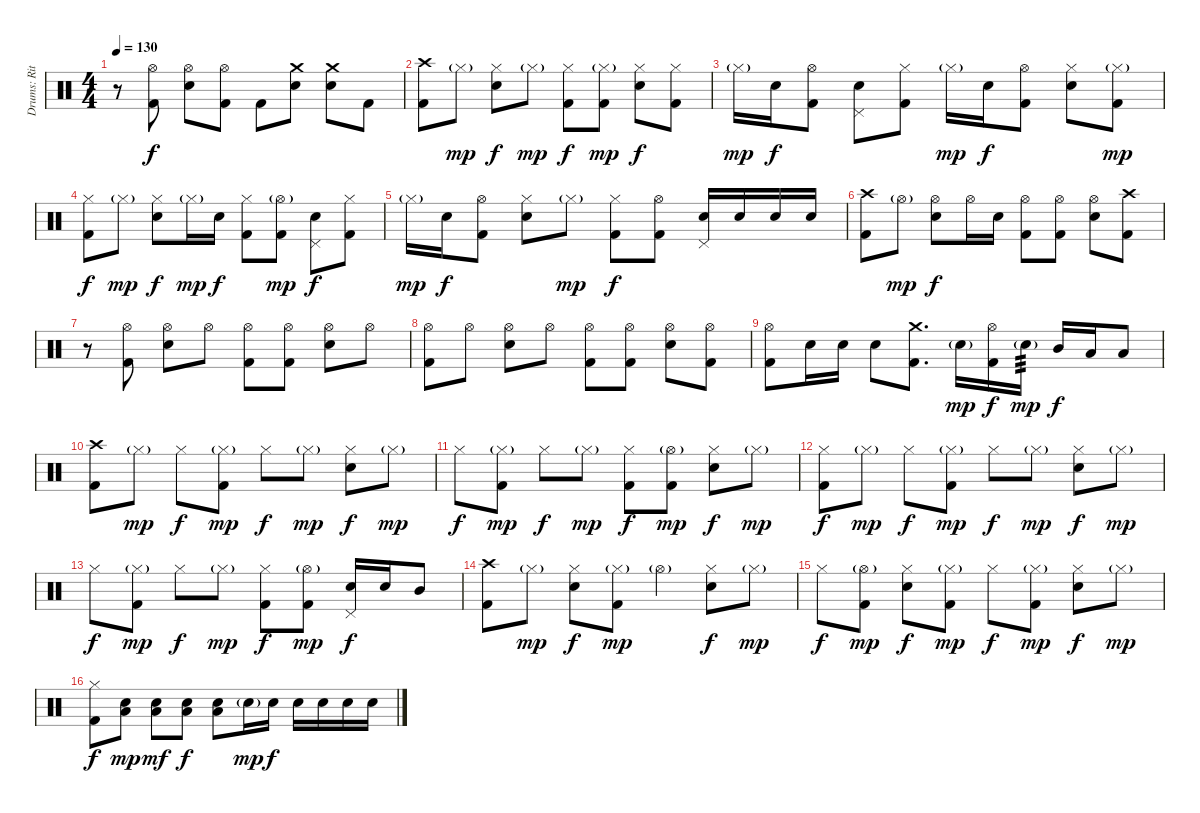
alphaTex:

\track ("Drums: Ritsu Tainaka" "Drums: Rit") {instrument percussion}
\staff {score}
\articulation defaults
\ts (4 4)
\tempo 130
\clef neutral
\ks c
r.8{dy f} ("Hi-Hat (open)" "Kick (hit) 2").8 ("Hi-Hat (open)" "Electric Snare (hit)").8 ("Hi-Hat (open)" "Kick (hit) 2").8 "Kick (hit) 2".8 ("Crash medium (hit)" "Electric Snare (hit)").8 ("Crash medium (hit)" "Electric Snare (hit)").8 "Kick (hit) 2".8 |
("Crash high (hit)" "Kick (hit) 2").8 "Hi-Hat (closed)"{g}.8{dy mp} ("Hi-Hat (closed)" "Electric Snare (hit)").8{dy f} "Hi-Hat (closed)"{g}.8{dy mp} ("Hi-Hat (closed)" "Kick (hit) 2").8{dy f} ("Hi-Hat (closed)"{g} "Kick (hit) 2").8{dy mp} ("Hi-Hat (closed)" "Electric Snare (hit)").8{dy f} ("Hi-Hat (closed)" "Kick (hit) 2").8 |
"Hi-Hat (closed)"{g}.16{dy mp} "Electric Snare (hit)".16{dy f} ("Hi-Hat (open)" "Kick (hit) 2").8 ("Pedal Hi-Hat (hit)" "Electric Snare (hit)").8 ("Hi-Hat (closed)" "Kick (hit) 2").8 "Hi-Hat (closed)"{g}.16{dy mp} "Electric Snare (hit)".16{dy f} ("Hi-Hat (open)" "Kick (hit) 2").8 ("Hi-Hat (closed)" "Electric Snare (hit)").8 ("Hi-Hat (closed)"{g} "Kick (hit) 2").8{dy mp} |
("Hi-Hat (closed)" "Kick (hit) 2").8{dy f} "Hi-Hat (closed)"{g}.8{dy mp} ("Hi-Hat (closed)" "Electric Snare (hit)").8{dy f} "Hi-Hat (closed)"{g}.16{dy mp} "Electric Snare (hit)".16{dy f} ("Hi-Hat (closed)" "Kick (hit) 2").8 ("Hi-Hat (open)"{g} "Kick (hit) 2").8{dy mp} ("Pedal Hi-Hat (hit)" "Electric Snare (hit)").8{dy f} ("Hi-Hat (closed)" "Kick (hit) 2").8 |
"Hi-Hat (closed)"{g}.16{dy mp} "Electric Snare (hit)".16{dy f} ("Hi-Hat (open)" "Kick (hit) 2").8 ("Hi-Hat (closed)" "Electric Snare (hit)").8 "Hi-Hat (closed)"{g}.8{dy mp} ("Hi-Hat (closed)" "Kick (hit) 2").8{dy f} ("Hi-Hat (open)" "Kick (hit) 2").8 ("Pedal Hi-Hat (hit)" "Electric Snare (hit)").16 "Electric Snare (hit)".16 "Electric Snare (hit)".16 "Electric Snare (hit)".16 |
("Crash high (hit)" "Kick (hit) 2").8 "Hi-Hat (open)"{g}.8{dy mp} ("Hi-Hat (open)" "Electric Snare (hit)").8{dy f} "Hi-Hat (open)".16 "Electric Snare (hit)".16 ("Hi-Hat (open)" "Kick (hit) 2").8 ("Hi-Hat (open)" "Kick (hit) 2").8 ("Hi-Hat (open)" "Electric Snare (hit)").8 ("Crash high (hit)" "Kick (hit) 2").8 |
r.8 ("Hi-Hat (open)" "Kick (hit) 2").8 ("Hi-Hat (open)" "Electric Snare (hit)").8 "Hi-Hat (open)".8 ("Hi-Hat (open)" "Kick (hit) 2").8 ("Hi-Hat (open)" "Kick (hit) 2").8 ("Hi-Hat (open)" "Electric Snare (hit)").8 "Hi-Hat (open)".8 |
("Hi-Hat (open)" "Kick (hit) 2").8 "Hi-Hat (open)".8 ("Hi-Hat (open)" "Electric Snare (hit)").8 "Hi-Hat (open)".8 ("Hi-Hat (open)" "Kick (hit) 2").8 ("Hi-Hat (open)" "Kick (hit) 2").8 ("Hi-Hat (open)" "Electric Snare (hit)").8 ("Hi-Hat (open)" "Kick (hit) 2").8 |
("Hi-Hat (open)" "Kick (hit) 2").8 "Electric Snare (hit)".16 "Electric Snare (hit)".16 "Electric Snare (hit)".8 ("Crash medium (hit)" "Kick (hit) 2").8{d} "Electric Snare (hit)"{g}.16{dy mp} ("Hi-Hat (open)" "Kick (hit) 2").16{dy f} "Electric Snare (hit)"{g}.16{tp 3 dy mp} "Mid Tom (hit)".16{dy f} "Low Tom (hit)".16 "Low Tom (hit)".8 |
("Crash high (hit)" "Kick (hit) 2").8 "Hi-Hat (closed)"{g}.8{dy mp} "Hi-Hat (closed)".8{dy f} ("Hi-Hat (closed)"{g} "Kick (hit) 2").8{dy mp} "Hi-Hat (closed)".8{dy f} "Hi-Hat (closed)"{g}.8{dy mp} ("Hi-Hat (closed)" "Electric Snare (hit)").8{dy f} "Hi-Hat (closed)"{g}.8{dy mp} |
"Hi-Hat (closed)".8{dy f} ("Hi-Hat (closed)"{g} "Kick (hit) 2").8{dy mp} "Hi-Hat (closed)".8{dy f} "Hi-Hat (closed)"{g}.8{dy mp} ("Hi-Hat (closed)" "Kick (hit) 2").8{dy f} ("Hi-Hat (open)"{g} "Kick (hit) 2").8{dy mp} ("Hi-Hat (closed)" "Electric Snare (hit)").8{dy f} "Hi-Hat (closed)"{g}.8{dy mp} |
("Hi-Hat (closed)" "Kick (hit) 2").8{dy f} "Hi-Hat (closed)"{g}.8{dy mp} "Hi-Hat (closed)".8{dy f} ("Hi-Hat (closed)"{g} "Kick (hit) 2").8{dy mp} "Hi-Hat (closed)".8{dy f} "Hi-Hat (closed)"{g}.8{dy mp} ("Hi-Hat (closed)" "Electric Snare (hit)").8{dy f} "Hi-Hat (closed)"{g}.8{dy mp} |
"Hi-Hat (closed)".8{dy f} ("Hi-Hat (closed)"{g} "Kick (hit) 2").8{dy mp} "Hi-Hat (closed)".8{dy f} "Hi-Hat (closed)"{g}.8{dy mp} ("Hi-Hat (closed)" "Kick (hit) 2").8{dy f} ("Hi-Hat (open)"{g} "Kick (hit) 2").8{dy mp} ("Pedal Hi-Hat (hit)" "Electric Snare (hit)").16{dy f} "Electric Snare (hit)".16 "Mid Tom (hit)".8 |
("Crash high (hit)" "Kick (hit) 2").8 "Hi-Hat (closed)"{g}.8{dy mp} ("Hi-Hat (closed)" "Electric Snare (hit)").8{dy f} ("Hi-Hat (closed)"{g} "Kick (hit) 2").8{dy mp} "Hi-Hat (open)"{g}.4 ("Hi-Hat (closed)" "Electric Snare (hit)").8{dy f} "Hi-Hat (closed)"{g}.8{dy mp} |
"Hi-Hat (closed)".8{dy f} ("Hi-Hat (open)"{g} "Kick (hit) 2").8{dy mp} ("Hi-Hat (closed)" "Electric Snare (hit)").8{dy f} ("Hi-Hat (closed)"{g} "Kick (hit) 2").8{dy mp} "Hi-Hat (closed)".8{dy f} ("Hi-Hat (closed)"{g} "Kick (hit) 2").8{dy mp} ("Hi-Hat (closed)" "Electric Snare (hit)").8{dy f} "Hi-Hat (closed)"{g}.8{dy mp} |
("Hi-Hat (closed)" "Kick (hit) 2").8{dy f} ("Electric Snare (hit)" "Low Floor Tom (hit)").8{dy mp} ("Electric Snare (hit)" "Low Floor Tom (hit)").8{dy mf} ("Electric Snare (hit)" "Low Floor Tom (hit)").8{dy f} ("Electric Snare (hit)" "Low Floor Tom (hit)").8 "Electric Snare (hit)"{g}.16{dy mp} "Electric Snare (hit)".16{dy f} "Electric Snare (hit)".16 "Electric Snare (hit)".16 "Electric Snare (hit)".16 "Electric Snare (hit)".16
